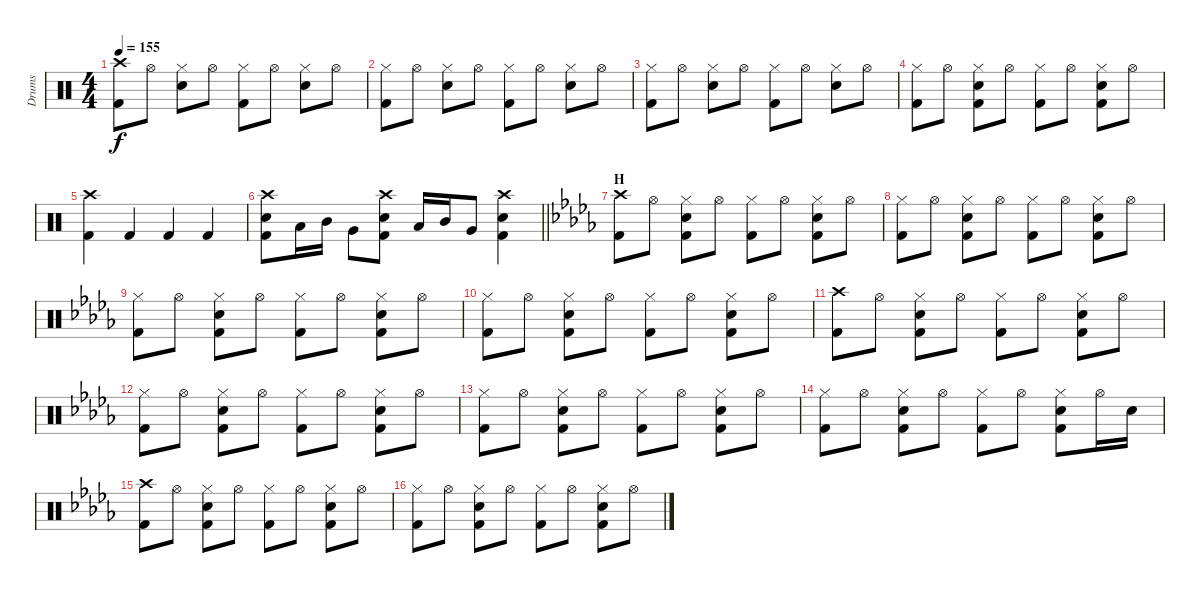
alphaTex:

\track ("Drums" "Drums") {instrument percussion}
\staff {score}
\articulation defaults
\ts (4 4)
\tempo 155
\clef neutral
\ks c
("Crash high (hit)" "Kick (hit) 2").8{dy f} "Hi-Hat (open)".8 ("Hi-Hat (closed)" "Snare (hit) 2").8 "Hi-Hat (open)".8 ("Hi-Hat (closed)" "Kick (hit) 2").8 "Hi-Hat (open)".8 ("Hi-Hat (closed)" "Snare (hit) 2").8 "Hi-Hat (open)".8 |
("Hi-Hat (closed)" "Kick (hit) 2").8 "Hi-Hat (open)".8 ("Hi-Hat (closed)" "Snare (hit) 2").8 "Hi-Hat (open)".8 ("Hi-Hat (closed)" "Kick (hit) 2").8 "Hi-Hat (open)".8 ("Hi-Hat (closed)" "Snare (hit) 2").8 "Hi-Hat (open)".8 |
("Hi-Hat (closed)" "Kick (hit) 2").8 "Hi-Hat (open)".8 ("Hi-Hat (closed)" "Snare (hit) 2").8 "Hi-Hat (open)".8 ("Hi-Hat (closed)" "Kick (hit) 2").8 "Hi-Hat (open)".8 ("Hi-Hat (closed)" "Snare (hit) 2").8 "Hi-Hat (open)".8 |
("Hi-Hat (closed)" "Kick (hit) 2").8 "Hi-Hat (open)".8 ("Hi-Hat (closed)" "Snare (hit) 2" "Kick (hit) 2").8 "Hi-Hat (open)".8 ("Hi-Hat (closed)" "Kick (hit) 2").8 "Hi-Hat (open)".8 ("Hi-Hat (closed)" "Snare (hit) 2" "Kick (hit) 2").8 "Hi-Hat (open)".8 |
("Crash high (hit)" "Kick (hit) 2").4 "Kick (hit) 2".4 "Kick (hit) 2".4 "Kick (hit) 2".4 |
\barLineRight lightlight
("Crash high (hit)" "Snare (hit) 2" "Kick (hit) 2").8 "Low Tom (hit)".16 "Mid Tom (hit)".16 "Very Low Tom (hit)".8 ("Crash high (hit)" "Snare (hit) 2" "Kick (hit) 2").8 "Low Tom (hit)".16 "Mid Tom (hit)".16 "Very Low Tom (hit)".8 ("Crash high (hit)" "Snare (hit) 2" "Kick (hit) 2").4 |
\section ("" "H")
\ks db
("Crash high (hit)" "Kick (hit) 2").8 "Hi-Hat (open)".8 ("Hi-Hat (closed)" "Snare (hit) 2" "Kick (hit) 2").8 "Hi-Hat (open)".8 ("Hi-Hat (closed)" "Kick (hit) 2").8 "Hi-Hat (open)".8 ("Hi-Hat (closed)" "Snare (hit) 2" "Kick (hit) 2").8 "Hi-Hat (open)".8 |
("Hi-Hat (closed)" "Kick (hit) 2").8 "Hi-Hat (open)".8 ("Hi-Hat (closed)" "Snare (hit) 2" "Kick (hit) 2").8 "Hi-Hat (open)".8 ("Hi-Hat (closed)" "Kick (hit) 2").8 "Hi-Hat (open)".8 ("Hi-Hat (closed)" "Snare (hit) 2" "Kick (hit) 2").8 "Hi-Hat (open)".8 |
("Hi-Hat (closed)" "Kick (hit) 2").8 "Hi-Hat (open)".8 ("Hi-Hat (closed)" "Snare (hit) 2" "Kick (hit) 2").8 "Hi-Hat (open)".8 ("Hi-Hat (closed)" "Kick (hit) 2").8 "Hi-Hat (open)".8 ("Hi-Hat (closed)" "Snare (hit) 2" "Kick (hit) 2").8 "Hi-Hat (open)".8 |
("Hi-Hat (closed)" "Kick (hit) 2").8 "Hi-Hat (open)".8 ("Hi-Hat (closed)" "Snare (hit) 2" "Kick (hit) 2").8 "Hi-Hat (open)".8 ("Hi-Hat (closed)" "Kick (hit) 2").8 "Hi-Hat (open)".8 ("Hi-Hat (closed)" "Snare (hit) 2" "Kick (hit) 2").8 "Hi-Hat (open)".8 |
("Crash high (hit)" "Kick (hit) 2").8 "Hi-Hat (open)".8 ("Hi-Hat (closed)" "Snare (hit) 2" "Kick (hit) 2").8 "Hi-Hat (open)".8 ("Hi-Hat (closed)" "Kick (hit) 2").8 "Hi-Hat (open)".8 ("Hi-Hat (closed)" "Snare (hit) 2" "Kick (hit) 2").8 "Hi-Hat (open)".8 |
("Hi-Hat (closed)" "Kick (hit) 2").8 "Hi-Hat (open)".8 ("Hi-Hat (closed)" "Snare (hit) 2" "Kick (hit) 2").8 "Hi-Hat (open)".8 ("Hi-Hat (closed)" "Kick (hit) 2").8 "Hi-Hat (open)".8 ("Hi-Hat (closed)" "Snare (hit) 2" "Kick (hit) 2").8 "Hi-Hat (open)".8 |
("Hi-Hat (closed)" "Kick (hit) 2").8 "Hi-Hat (open)".8 ("Hi-Hat (closed)" "Snare (hit) 2" "Kick (hit) 2").8 "Hi-Hat (open)".8 ("Hi-Hat (closed)" "Kick (hit) 2").8 "Hi-Hat (open)".8 ("Hi-Hat (closed)" "Snare (hit) 2" "Kick (hit) 2").8 "Hi-Hat (open)".8 |
("Hi-Hat (closed)" "Kick (hit) 2").8 "Hi-Hat (open)".8 ("Hi-Hat (closed)" "Snare (hit) 2" "Kick (hit) 2").8 "Hi-Hat (open)".8 ("Hi-Hat (closed)" "Kick (hit) 2").8 "Hi-Hat (open)".8 ("Hi-Hat (closed)" "Snare (hit) 2" "Kick (hit) 2").8 "Hi-Hat (open)".16 "Snare (hit) 2".16 |
("Crash high (hit)" "Kick (hit) 2").8 "Hi-Hat (open)".8 ("Hi-Hat (closed)" "Snare (hit) 2" "Kick (hit) 2").8 "Hi-Hat (open)".8 ("Hi-Hat (closed)" "Kick (hit) 2").8 "Hi-Hat (open)".8 ("Hi-Hat (closed)" "Snare (hit) 2" "Kick (hit) 2").8 "Hi-Hat (open)".8 |
("Hi-Hat (closed)" "Kick (hit) 2").8 "Hi-Hat (open)".8 ("Hi-Hat (closed)" "Snare (hit) 2" "Kick (hit) 2").8 "Hi-Hat (open)".8 ("Hi-Hat (closed)" "Kick (hit) 2").8 "Hi-Hat (open)".8 ("Hi-Hat (closed)" "Snare (hit) 2" "Kick (hit) 2").8 "Hi-Hat (open)".8
